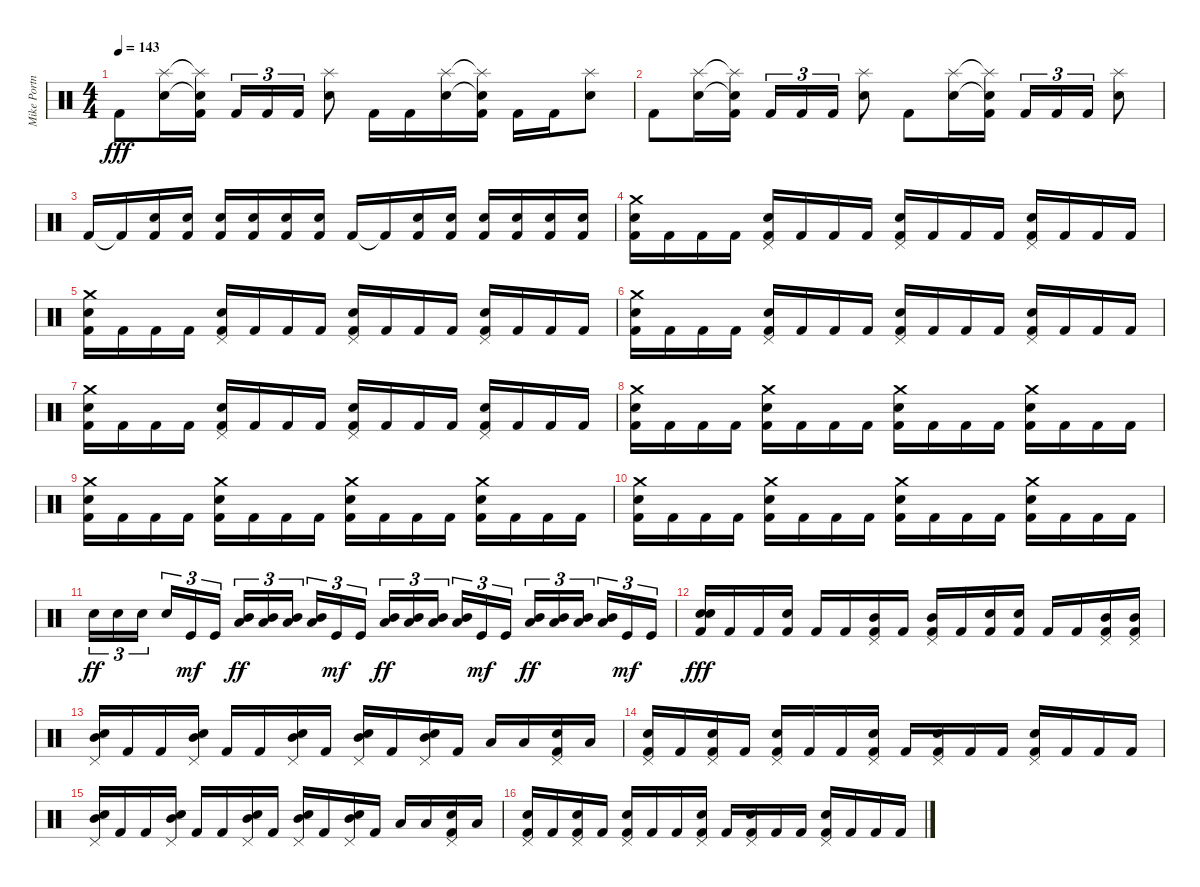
\track ("Mike Portnoy" "Mike Portn") {instrument percussion}
\staff {score}
\articulation defaults
\ts (4 4)
\tempo 143
\clef neutral
\ks c "Kick (hit) 2".8{dy fff}
("Splash (hit)" "Electric Snare (hit)").16 ("Splash (hit)"{t} "Electric Snare (hit)"{t} "Kick (hit) 2").16 "Kick (hit) 2".16{tu (3 2)} "Kick (hit) 2".16{tu (3 2)} "Kick (hit) 2".16{tu (3 2)} ("Splash (hit)" "Electric Snare (hit)").8 "Kick (hit) 2".16 "Kick (hit) 2".16 ("Splash (hit)" "Electric Snare (hit)").16 ("Splash (hit)"{t} "Electric Snare (hit)"{t} "Kick (hit) 2").16 "Kick (hit) 2".16 "Kick (hit) 2".16 ("Splash (hit)" "Electric Snare (hit)").8 |
"Kick (hit) 2".8 ("Splash (hit)" "Electric Snare (hit)").16 ("Splash (hit)"{t} "Electric Snare (hit)"{t} "Kick (hit) 2").16 "Kick (hit) 2".16{tu (3 2)} "Kick (hit) 2".16{tu (3 2)} "Kick (hit) 2".16{tu (3 2)} ("Splash (hit)" "Electric Snare (hit)").8 "Kick (hit) 2".8 ("Splash (hit)" "Electric Snare (hit)").16 ("Splash (hit)"{t} "Electric Snare (hit)"{t} "Kick (hit) 2").16 "Kick (hit) 2".16{tu (3 2)} "Kick (hit) 2".16{tu (3 2)} "Kick (hit) 2".16{tu (3 2)} ("Splash (hit)" "Electric Snare (hit)").8 |
"Kick (hit) 2".16 "Kick (hit) 2"{t}.16 ("Electric Snare (hit)" "Kick (hit) 2").16 ("Electric Snare (hit)" "Kick (hit) 2").16 ("Electric Snare (hit)" "Kick (hit) 2").16 ("Electric Snare (hit)" "Kick (hit) 2").16 ("Electric Snare (hit)" "Kick (hit) 2").16 ("Electric Snare (hit)" "Kick (hit) 2").16 "Kick (hit) 2".16 "Kick (hit) 2"{t}.16 ("Electric Snare (hit)" "Kick (hit) 2").16 ("Electric Snare (hit)" "Kick (hit) 2").16 ("Electric Snare (hit)" "Kick (hit) 2").16 ("Electric Snare (hit)" "Kick (hit) 2").16 ("Electric Snare (hit)" "Kick (hit) 2").16 ("Electric Snare (hit)" "Kick (hit) 2").16 |
("Crash medium (hit)" "Electric Snare (hit)" "Kick (hit) 2").16 "Kick (hit) 2".16 "Kick (hit) 2".16 "Kick (hit) 2".16 ("Pedal Hi-Hat (hit)" "Electric Snare (hit)" "Kick (hit) 2").16 "Kick (hit) 2".16 "Kick (hit) 2".16 "Kick (hit) 2".16 ("Pedal Hi-Hat (hit)" "Electric Snare (hit)" "Kick (hit) 2").16 "Kick (hit) 2".16 "Kick (hit) 2".16 "Kick (hit) 2".16 ("Pedal Hi-Hat (hit)" "Electric Snare (hit)" "Kick (hit) 2").16 "Kick (hit) 2".16 "Kick (hit) 2".16 "Kick (hit) 2".16 |
("Crash medium (hit)" "Electric Snare (hit)" "Kick (hit) 2").16 "Kick (hit) 2".16 "Kick (hit) 2".16 "Kick (hit) 2".16 ("Pedal Hi-Hat (hit)" "Electric Snare (hit)" "Kick (hit) 2").16 "Kick (hit) 2".16 "Kick (hit) 2".16 "Kick (hit) 2".16 ("Pedal Hi-Hat (hit)" "Electric Snare (hit)" "Kick (hit) 2").16 "Kick (hit) 2".16 "Kick (hit) 2".16 "Kick (hit) 2".16 ("Pedal Hi-Hat (hit)" "Electric Snare (hit)" "Kick (hit) 2").16 "Kick (hit) 2".16 "Kick (hit) 2".16 "Kick (hit) 2".16 |
("Crash medium (hit)" "Electric Snare (hit)" "Kick (hit) 2").16 "Kick (hit) 2".16 "Kick (hit) 2".16 "Kick (hit) 2".16 ("Pedal Hi-Hat (hit)" "Electric Snare (hit)" "Kick (hit) 2").16 "Kick (hit) 2".16 "Kick (hit) 2".16 "Kick (hit) 2".16 ("Pedal Hi-Hat (hit)" "Electric Snare (hit)" "Kick (hit) 2").16 "Kick (hit) 2".16 "Kick (hit) 2".16 "Kick (hit) 2".16 ("Pedal Hi-Hat (hit)" "Electric Snare (hit)" "Kick (hit) 2").16 "Kick (hit) 2".16 "Kick (hit) 2".16 "Kick (hit) 2".16 |
("Crash medium (hit)" "Electric Snare (hit)" "Kick (hit) 2").16 "Kick (hit) 2".16 "Kick (hit) 2".16 "Kick (hit) 2".16 ("Pedal Hi-Hat (hit)" "Electric Snare (hit)" "Kick (hit) 2").16 "Kick (hit) 2".16 "Kick (hit) 2".16 "Kick (hit) 2".16 ("Pedal Hi-Hat (hit)" "Electric Snare (hit)" "Kick (hit) 2").16 "Kick (hit) 2".16 "Kick (hit) 2".16 "Kick (hit) 2".16 ("Pedal Hi-Hat (hit)" "Electric Snare (hit)" "Kick (hit) 2").16 "Kick (hit) 2".16 "Kick (hit) 2".16 "Kick (hit) 2".16 |
("Crash medium (hit)" "Electric Snare (hit)" "Kick (hit) 2").16 "Kick (hit) 2".16 "Kick (hit) 2".16 "Kick (hit) 2".16 ("Crash medium (hit)" "Electric Snare (hit)" "Kick (hit) 2").16 "Kick (hit) 2".16 "Kick (hit) 2".16 "Kick (hit) 2".16 ("Crash medium (hit)" "Electric Snare (hit)" "Kick (hit) 2").16 "Kick (hit) 2".16 "Kick (hit) 2".16 "Kick (hit) 2".16 ("Crash medium (hit)" "Electric Snare (hit)" "Kick (hit) 2").16 "Kick (hit) 2".16 "Kick (hit) 2".16 "Kick (hit) 2".16 |
("Crash medium (hit)" "Electric Snare (hit)" "Kick (hit) 2").16 "Kick (hit) 2".16 "Kick (hit) 2".16 "Kick (hit) 2".16 ("Crash medium (hit)" "Electric Snare (hit)" "Kick (hit) 2").16 "Kick (hit) 2".16 "Kick (hit) 2".16 "Kick (hit) 2".16 ("Crash medium (hit)" "Electric Snare (hit)" "Kick (hit) 2").16 "Kick (hit) 2".16 "Kick (hit) 2".16 "Kick (hit) 2".16 ("Crash medium (hit)" "Electric Snare (hit)" "Kick (hit) 2").16 "Kick (hit) 2".16 "Kick (hit) 2".16 "Kick (hit) 2".16 |
("Crash medium (hit)" "Electric Snare (hit)" "Kick (hit) 2").16 "Kick (hit) 2".16 "Kick (hit) 2".16 "Kick (hit) 2".16 ("Crash medium (hit)" "Electric Snare (hit)" "Kick (hit) 2").16 "Kick (hit) 2".16 "Kick (hit) 2".16 "Kick (hit) 2".16 ("Crash medium (hit)" "Electric Snare (hit)" "Kick (hit) 2").16 "Kick (hit) 2".16 "Kick (hit) 2".16 "Kick (hit) 2".16 ("Crash medium (hit)" "Electric Snare (hit)" "Kick (hit) 2").16 "Kick (hit) 2".16 "Kick (hit) 2".16 "Kick (hit) 2".16 |
"Electric Snare (hit)".16{tu (3 2) dy ff} "Electric Snare (hit)".16{tu (3 2)} "Electric Snare (hit)".16{tu (3 2) beam splitsecondary} "Electric Snare (hit)".16{tu (3 2)} "Kick (hit)".16{tu (3 2) dy mf} "Kick (hit)".16{tu (3 2)} ("Low Tom (hit)" "Mid Tom (hit)").16{tu (3 2) dy ff} ("Low Tom (hit)" "Mid Tom (hit)").16{tu (3 2)} ("Low Tom (hit)" "Mid Tom (hit)").16{tu (3 2) beam splitsecondary} ("Low Tom (hit)" "Mid Tom (hit)").16{tu (3 2)} "Kick (hit)".16{tu (3 2) dy mf} "Kick (hit)".16{tu (3 2)} ("Low Tom (hit)" "Mid Tom (hit)").16{tu (3 2) dy ff} ("Low Tom (hit)" "Mid Tom (hit)").16{tu (3 2)} ("Low Tom (hit)" "Mid Tom (hit)").16{tu (3 2) beam splitsecondary} ("Low Tom (hit)" "Mid Tom (hit)").16{tu (3 2)} "Kick (hit)".16{tu (3 2) dy mf} "Kick (hit)".16{tu (3 2)} ("Low Tom (hit)" "Mid Tom (hit)").16{tu (3 2) dy ff} ("Low Tom (hit)" "Mid Tom (hit)").16{tu (3 2)} ("Low Tom (hit)" "Mid Tom (hit)").16{tu (3 2) beam splitsecondary} ("Low Tom (hit)" "Mid Tom (hit)").16{tu (3 2)} "Kick (hit)".16{tu (3 2) dy mf} "Kick (hit)".16{tu (3 2)} |
("Electric Snare (hit)" "Electric Snare (hit)" "Kick (hit) 2").16{dy fff} "Kick (hit) 2".16 "Kick (hit) 2".16 ("Electric Snare (hit)" "Kick (hit) 2").16 "Kick (hit) 2".16 "Kick (hit) 2".16 ("Pedal Hi-Hat (hit)" "Mid Tom (hit)" "Kick (hit) 2").16 "Kick (hit) 2".16 ("Pedal Hi-Hat (hit)" "Mid Tom (hit)" "Kick (hit) 2").16 "Kick (hit) 2".16 ("Electric Snare (hit)" "Kick (hit) 2").16 ("Electric Snare (hit)" "Kick (hit) 2").16 "Kick (hit) 2".16 "Kick (hit) 2".16 ("Pedal Hi-Hat (hit)" "Mid Tom (hit)" "Kick (hit) 2").16 ("Pedal Hi-Hat (hit)" "Mid Tom (hit)" "Kick (hit) 2").16 |
("Pedal Hi-Hat (hit)" "Electric Snare (hit)" "Mid Tom (hit)").16 "Kick (hit) 2".16 "Kick (hit) 2".16 ("Pedal Hi-Hat (hit)" "Electric Snare (hit)" "Mid Tom (hit)").16 "Kick (hit) 2".16 "Kick (hit) 2".16 ("Pedal Hi-Hat (hit)" "Electric Snare (hit)" "Mid Tom (hit)").16 "Kick (hit) 2".16 ("Pedal Hi-Hat (hit)" "Electric Snare (hit)" "Mid Tom (hit)").16 "Kick (hit) 2".16 ("Pedal Hi-Hat (hit)" "Electric Snare (hit)" "Mid Tom (hit)").16 "Kick (hit) 2".16 "Low Tom (hit)".16 "Low Tom (hit)".16 ("Pedal Hi-Hat (hit)" "Electric Snare (hit)" "Kick (hit) 2").16 "Low Tom (hit)".16 |
("Pedal Hi-Hat (hit)" "Electric Snare (hit)" "Kick (hit) 2").16 "Kick (hit) 2".16 ("Pedal Hi-Hat (hit)" "Electric Snare (hit)" "Kick (hit) 2").16 "Kick (hit) 2".16 ("Pedal Hi-Hat (hit)" "Electric Snare (hit)" "Kick (hit) 2").16 "Kick (hit) 2".16 "Kick (hit) 2".16 ("Pedal Hi-Hat (hit)" "Electric Snare (hit)" "Kick (hit) 2").16 "Kick (hit) 2".16 ("Pedal Hi-Hat (hit)" "Electric Snare (hit)" "Kick (hit) 2").16 "Kick (hit) 2".16 "Kick (hit) 2".16 ("Pedal Hi-Hat (hit)" "Electric Snare (hit)" "Kick (hit) 2").16 "Kick (hit) 2".16 "Kick (hit) 2".16 "Kick (hit) 2".16 |
("Pedal Hi-Hat (hit)" "Electric Snare (hit)" "Mid Tom (hit)").16 "Kick (hit) 2".16 "Kick (hit) 2".16 ("Pedal Hi-Hat (hit)" "Electric Snare (hit)" "Mid Tom (hit)").16 "Kick (hit) 2".16 "Kick (hit) 2".16 ("Pedal Hi-Hat (hit)" "Electric Snare (hit)" "Mid Tom (hit)").16 "Kick (hit) 2".16 ("Pedal Hi-Hat (hit)" "Electric Snare (hit)" "Mid Tom (hit)").16 "Kick (hit) 2".16 ("Pedal Hi-Hat (hit)" "Electric Snare (hit)" "Mid Tom (hit)").16 "Kick (hit) 2".16 "Low Tom (hit)".16 "Low Tom (hit)".16 ("Pedal Hi-Hat (hit)" "Electric Snare (hit)" "Kick (hit) 2").16 "Low Tom (hit)".16 |
("Pedal Hi-Hat (hit)" "Electric Snare (hit)" "Kick (hit) 2").16 "Kick (hit) 2".16 ("Pedal Hi-Hat (hit)" "Electric Snare (hit)" "Kick (hit) 2").16 "Kick (hit) 2".16 ("Pedal Hi-Hat (hit)" "Electric Snare (hit)" "Kick (hit) 2").16 "Kick (hit) 2".16 "Kick (hit) 2".16 ("Pedal Hi-Hat (hit)" "Electric Snare (hit)" "Kick (hit) 2").16 "Kick (hit) 2".16 ("Pedal Hi-Hat (hit)" "Electric Snare (hit)" "Kick (hit) 2").16 "Kick (hit) 2".16 "Kick (hit) 2".16 ("Pedal Hi-Hat (hit)" "Electric Snare (hit)" "Kick (hit) 2").16 "Kick (hit) 2".16 "Kick (hit) 2".16 "Kick (hit) 2".16
